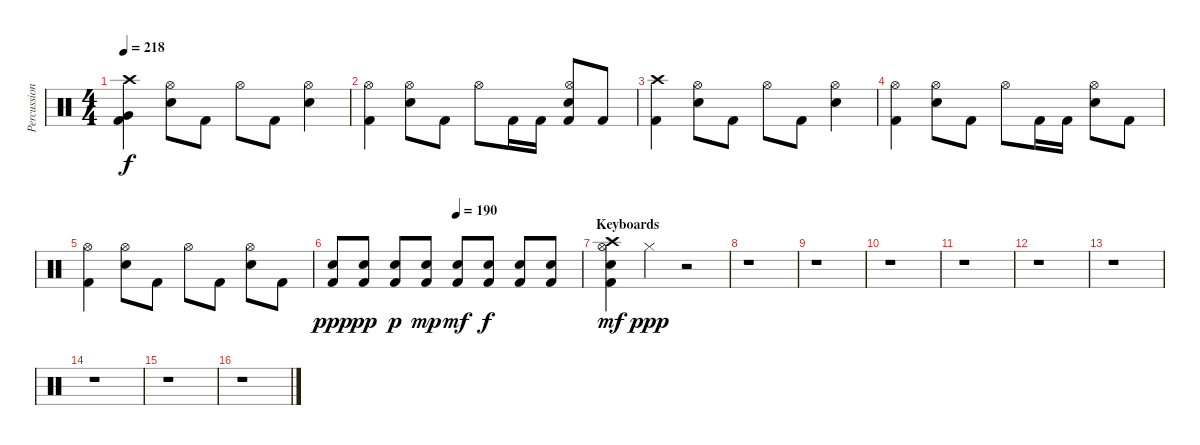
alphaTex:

\track ("Percussion" "Percussion") {instrument percussion}
\staff {score}
\articulation defaults
\ts (4 4)
\tempo 218
\clef neutral
\ks c
("Crash high (hit)" "Very Low Tom (hit)" "Kick (hit) 2").4{dy f} ("Hi-Hat (open)" "Electric Snare (hit)").8 "Kick (hit) 2".8 "Hi-Hat (open)".8 "Kick (hit) 2".8 ("Hi-Hat (open)" "Electric Snare (hit)").4 |
("Hi-Hat (open)" "Kick (hit) 2").4 ("Hi-Hat (open)" "Electric Snare (hit)").8 "Kick (hit) 2".8 "Hi-Hat (open)".8 "Kick (hit) 2".16 "Kick (hit) 2".16 ("Hi-Hat (open)" "Electric Snare (hit)" "Kick (hit) 2").8 "Kick (hit) 2".8 |
("Crash high (hit)" "Kick (hit) 2").4 ("Hi-Hat (open)" "Electric Snare (hit)").8 "Kick (hit) 2".8 "Hi-Hat (open)".8 "Kick (hit) 2".8 ("Hi-Hat (open)" "Electric Snare (hit)").4 |
("Hi-Hat (open)" "Kick (hit) 2").4 ("Hi-Hat (open)" "Electric Snare (hit)").8 "Kick (hit) 2".8 "Hi-Hat (open)".8 "Kick (hit) 2".16 "Kick (hit) 2".16 ("Hi-Hat (open)" "Electric Snare (hit)").8 "Kick (hit) 2".8 |
("Hi-Hat (open)" "Kick (hit) 2").4 ("Hi-Hat (open)" "Electric Snare (hit)").8 "Kick (hit) 2".8 "Hi-Hat (open)".8 "Kick (hit) 2".8 ("Hi-Hat (open)" "Electric Snare (hit)").8 "Kick (hit) 2".8 |
\tempo (190 0.5)
("Electric Snare (hit)" "Kick (hit) 2").8{dy ppp} ("Electric Snare (hit)" "Kick (hit) 2").8{dy pp} ("Electric Snare (hit)" "Kick (hit) 2").8{dy p} ("Electric Snare (hit)" "Kick (hit) 2").8{dy mp} ("Electric Snare (hit)" "Kick (hit) 2").8{dy mf} ("Electric Snare (hit)" "Kick (hit) 2").8{dy f} ("Electric Snare (hit)" "Kick (hit) 2").8 ("Electric Snare (hit)" "Kick (hit) 2").8 |
\section ("" "Keyboards")
("Crash high (hit)" "Hi-Hat (open)" "Electric Snare (hit)" "Kick (hit) 2").4{dy mf} "Hi-Hat (closed)".4{dy ppp} r.2 |
r.1 |
r.1 |
r.1 |
r.1 |
r.1 |
r.1 |
r.1 |
r.1 |
r.1
